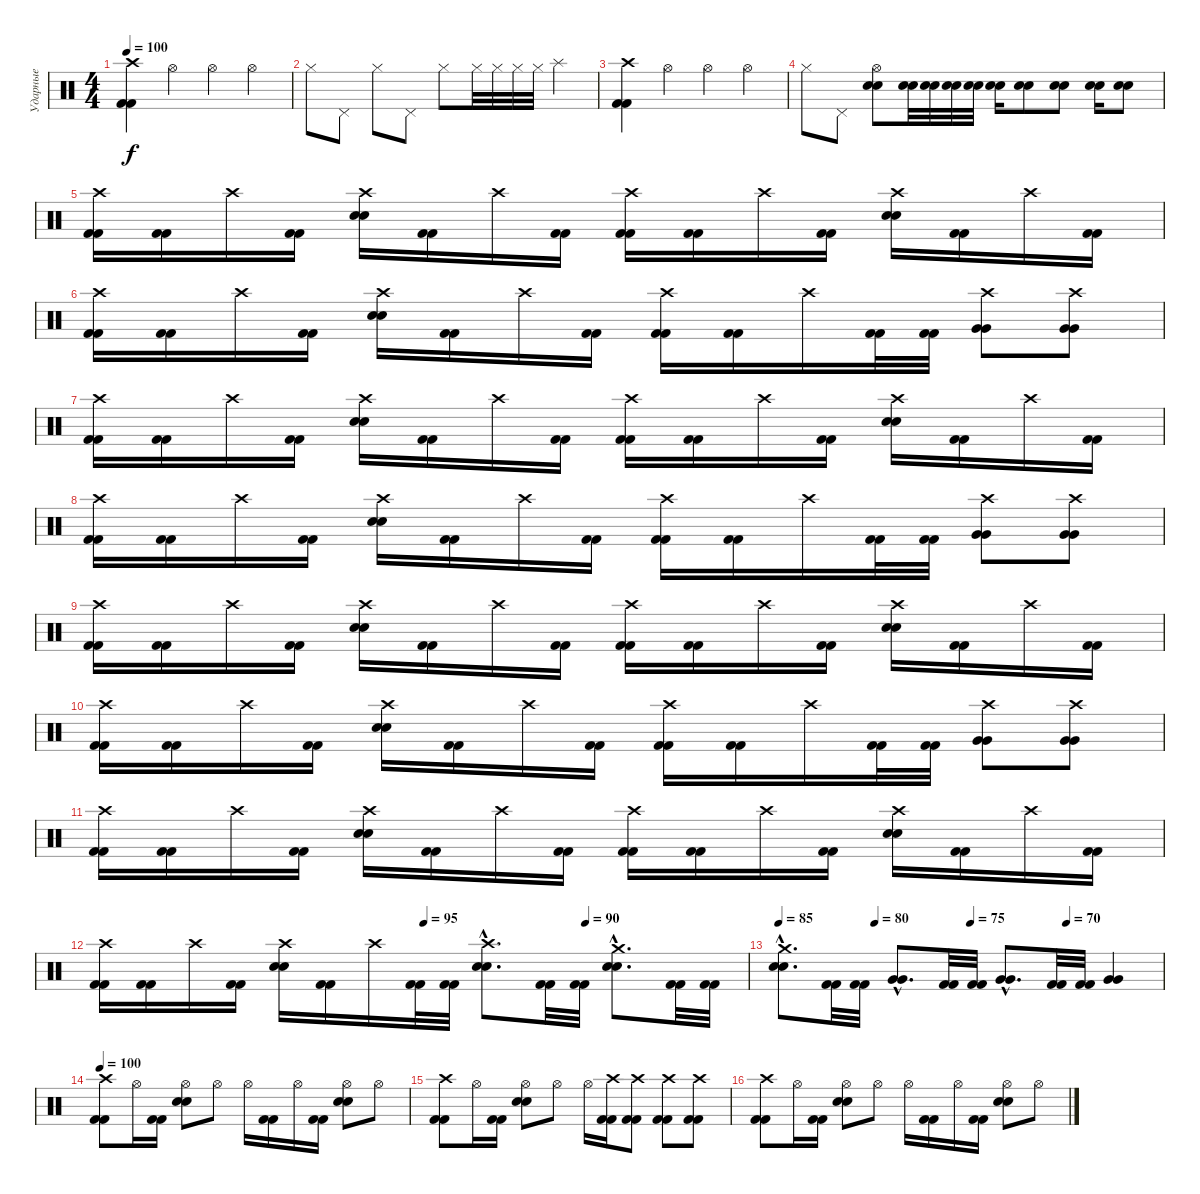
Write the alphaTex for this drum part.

\track ("Ударные" "Ударные") {instrument percussion}
\staff {score}
\articulation defaults
\ts (4 4)
\tempo 100
\clef neutral
\ks c
("Crash high (hit)" "Kick (hit) 2" "Kick (hit) 2").4{dy f} "Hi-Hat (open)".4 "Hi-Hat (open)".4 "Hi-Hat (open)".4 |
"Hi-Hat (closed)".8 "Pedal Hi-Hat (hit)".8 "Hi-Hat (closed)".8 "Pedal Hi-Hat (hit)".8 "Hi-Hat (closed)".8 "Hi-Hat (closed)".32 "Hi-Hat (closed)".32 "Hi-Hat (closed)".32 "Hi-Hat (closed)".32 "Splash (hit)".4 |
("Crash high (hit)" "Kick (hit) 2" "Kick (hit) 2").4 "Hi-Hat (open)".4 "Hi-Hat (open)".4 "Hi-Hat (open)".4 |
"Hi-Hat (closed)".8 "Pedal Hi-Hat (hit)".8 ("Hi-Hat (open)" "Electric Snare (hit)" "Electric Snare (hit)").8 ("Electric Snare (hit)" "Electric Snare (hit)").32 ("Electric Snare (hit)" "Electric Snare (hit)").32 ("Electric Snare (hit)" "Electric Snare (hit)").32 ("Electric Snare (hit)" "Electric Snare (hit)").32 ("Electric Snare (hit)" "Electric Snare (hit)").16 ("Electric Snare (hit)" "Electric Snare (hit)").8 ("Electric Snare (hit)" "Electric Snare (hit)").8 ("Electric Snare (hit)" "Electric Snare (hit)").16 ("Electric Snare (hit)" "Electric Snare (hit)").8 |
("Crash high (hit)" "Kick (hit) 2" "Kick (hit) 2").16 ("Kick (hit) 2" "Kick (hit) 2").16 "Crash high (hit)".16 ("Kick (hit) 2" "Kick (hit) 2").16 ("Crash high (hit)" "Electric Snare (hit)" "Electric Snare (hit)").16 ("Kick (hit) 2" "Kick (hit) 2").16 "Crash high (hit)".16 ("Kick (hit) 2" "Kick (hit) 2").16 ("Crash high (hit)" "Kick (hit) 2" "Kick (hit) 2").16 ("Kick (hit) 2" "Kick (hit) 2").16 "Crash high (hit)".16 ("Kick (hit) 2" "Kick (hit) 2").16 ("Crash high (hit)" "Electric Snare (hit)" "Electric Snare (hit)").16 ("Kick (hit) 2" "Kick (hit) 2").16 "Crash high (hit)".16 ("Kick (hit) 2" "Kick (hit) 2").16 |
("Crash high (hit)" "Kick (hit) 2" "Kick (hit) 2").16 ("Kick (hit) 2" "Kick (hit) 2").16 "Crash high (hit)".16 ("Kick (hit) 2" "Kick (hit) 2").16 ("Crash high (hit)" "Electric Snare (hit)" "Electric Snare (hit)").16 ("Kick (hit) 2" "Kick (hit) 2").16 "Crash high (hit)".16 ("Kick (hit) 2" "Kick (hit) 2").16 ("Crash high (hit)" "Kick (hit) 2" "Kick (hit) 2").16 ("Kick (hit) 2" "Kick (hit) 2").16 "Crash high (hit)".16 ("Kick (hit) 2" "Kick (hit) 2").32 ("Kick (hit) 2" "Kick (hit) 2").32 ("Crash high (hit)" "Very Low Tom (hit)" "Very Low Tom (hit)").8 ("Crash high (hit)" "Very Low Tom (hit)" "Very Low Tom (hit)").8 |
("Crash high (hit)" "Kick (hit) 2" "Kick (hit) 2").16 ("Kick (hit) 2" "Kick (hit) 2").16 "Crash high (hit)".16 ("Kick (hit) 2" "Kick (hit) 2").16 ("Crash high (hit)" "Electric Snare (hit)" "Electric Snare (hit)").16 ("Kick (hit) 2" "Kick (hit) 2").16 "Crash high (hit)".16 ("Kick (hit) 2" "Kick (hit) 2").16 ("Crash high (hit)" "Kick (hit) 2" "Kick (hit) 2").16 ("Kick (hit) 2" "Kick (hit) 2").16 "Crash high (hit)".16 ("Kick (hit) 2" "Kick (hit) 2").16 ("Crash high (hit)" "Electric Snare (hit)" "Electric Snare (hit)").16 ("Kick (hit) 2" "Kick (hit) 2").16 "Crash high (hit)".16 ("Kick (hit) 2" "Kick (hit) 2").16 |
("Crash high (hit)" "Kick (hit) 2" "Kick (hit) 2").16 ("Kick (hit) 2" "Kick (hit) 2").16 "Crash high (hit)".16 ("Kick (hit) 2" "Kick (hit) 2").16 ("Crash high (hit)" "Electric Snare (hit)" "Electric Snare (hit)").16 ("Kick (hit) 2" "Kick (hit) 2").16 "Crash high (hit)".16 ("Kick (hit) 2" "Kick (hit) 2").16 ("Crash high (hit)" "Kick (hit) 2" "Kick (hit) 2").16 ("Kick (hit) 2" "Kick (hit) 2").16 "Crash high (hit)".16 ("Kick (hit) 2" "Kick (hit) 2").32 ("Kick (hit) 2" "Kick (hit) 2").32 ("Crash high (hit)" "Very Low Tom (hit)" "Very Low Tom (hit)").8 ("Crash high (hit)" "Very Low Tom (hit)" "Very Low Tom (hit)").8 |
("Crash high (hit)" "Kick (hit) 2" "Kick (hit) 2").16 ("Kick (hit) 2" "Kick (hit) 2").16 "Crash high (hit)".16 ("Kick (hit) 2" "Kick (hit) 2").16 ("Crash high (hit)" "Electric Snare (hit)" "Electric Snare (hit)").16 ("Kick (hit) 2" "Kick (hit) 2").16 "Crash high (hit)".16 ("Kick (hit) 2" "Kick (hit) 2").16 ("Crash high (hit)" "Kick (hit) 2" "Kick (hit) 2").16 ("Kick (hit) 2" "Kick (hit) 2").16 "Crash high (hit)".16 ("Kick (hit) 2" "Kick (hit) 2").16 ("Crash high (hit)" "Electric Snare (hit)" "Electric Snare (hit)").16 ("Kick (hit) 2" "Kick (hit) 2").16 "Crash high (hit)".16 ("Kick (hit) 2" "Kick (hit) 2").16 |
("Crash high (hit)" "Kick (hit) 2" "Kick (hit) 2").16 ("Kick (hit) 2" "Kick (hit) 2").16 "Crash high (hit)".16 ("Kick (hit) 2" "Kick (hit) 2").16 ("Crash high (hit)" "Electric Snare (hit)" "Electric Snare (hit)").16 ("Kick (hit) 2" "Kick (hit) 2").16 "Crash high (hit)".16 ("Kick (hit) 2" "Kick (hit) 2").16 ("Crash high (hit)" "Kick (hit) 2" "Kick (hit) 2").16 ("Kick (hit) 2" "Kick (hit) 2").16 "Crash high (hit)".16 ("Kick (hit) 2" "Kick (hit) 2").32 ("Kick (hit) 2" "Kick (hit) 2").32 ("Crash high (hit)" "Very Low Tom (hit)" "Very Low Tom (hit)").8 ("Crash high (hit)" "Very Low Tom (hit)" "Very Low Tom (hit)").8 |
("Crash high (hit)" "Kick (hit) 2" "Kick (hit) 2").16 ("Kick (hit) 2" "Kick (hit) 2").16 "Crash high (hit)".16 ("Kick (hit) 2" "Kick (hit) 2").16 ("Crash high (hit)" "Electric Snare (hit)" "Electric Snare (hit)").16 ("Kick (hit) 2" "Kick (hit) 2").16 "Crash high (hit)".16 ("Kick (hit) 2" "Kick (hit) 2").16 ("Crash high (hit)" "Kick (hit) 2" "Kick (hit) 2").16 ("Kick (hit) 2" "Kick (hit) 2").16 "Crash high (hit)".16 ("Kick (hit) 2" "Kick (hit) 2").16 ("Crash high (hit)" "Electric Snare (hit)" "Electric Snare (hit)").16 ("Kick (hit) 2" "Kick (hit) 2").16 "Crash high (hit)".16 ("Kick (hit) 2" "Kick (hit) 2").16 |
\tempo (95 0.5)
\tempo (90 0.75)
("Crash high (hit)" "Kick (hit) 2" "Kick (hit) 2").16 ("Kick (hit) 2" "Kick (hit) 2").16 "Crash high (hit)".16 ("Kick (hit) 2" "Kick (hit) 2").16 ("Crash high (hit)" "Electric Snare (hit)" "Electric Snare (hit)").16 ("Kick (hit) 2" "Kick (hit) 2").16 "Crash high (hit)".16 ("Kick (hit) 2" "Kick (hit) 2").32 ("Kick (hit) 2" "Kick (hit) 2").32 ("Crash high (hit)"{hac} "Electric Snare (hit)"{hac} "Electric Snare (hit)"{hac}).8{d} ("Kick (hit) 2" "Kick (hit) 2").32 ("Kick (hit) 2" "Kick (hit) 2").32 ("Crash medium (hit)"{hac} "Electric Snare (hit)"{hac} "Electric Snare (hit)"{hac}).8{d} ("Kick (hit) 2" "Kick (hit) 2").32 ("Kick (hit) 2" "Kick (hit) 2").32 |
\tempo 85
\tempo (80 0.25)
\tempo (75 0.5)
\tempo (70 0.75)
("Crash medium (hit)"{hac} "Electric Snare (hit)"{hac} "Electric Snare (hit)"{hac}).8{d} ("Kick (hit) 2" "Kick (hit) 2").32 ("Kick (hit) 2" "Kick (hit) 2").32 ("Very Low Tom (hit)"{hac} "Very Low Tom (hit)"{hac}).8{d} ("Kick (hit) 2" "Kick (hit) 2").32 ("Kick (hit) 2" "Kick (hit) 2").32 ("Very Low Tom (hit)"{hac} "Very Low Tom (hit)"{hac}).8{d} ("Kick (hit) 2" "Kick (hit) 2").32 ("Kick (hit) 2" "Kick (hit) 2").32 ("Very Low Tom (hit)" "Very Low Tom (hit)").4 |
\tempo 100
("Crash high (hit)" "Kick (hit) 2" "Kick (hit) 2").8 "Hi-Hat (open)".16 ("Kick (hit) 2" "Kick (hit) 2").16 ("Hi-Hat (open)" "Electric Snare (hit)" "Electric Snare (hit)").8 "Hi-Hat (open)".8 "Hi-Hat (open)".16 ("Kick (hit) 2" "Kick (hit) 2").16 "Hi-Hat (open)".16 ("Kick (hit) 2" "Kick (hit) 2").16 ("Hi-Hat (open)" "Electric Snare (hit)" "Electric Snare (hit)").8 "Hi-Hat (open)".8 |
("Crash high (hit)" "Kick (hit) 2" "Kick (hit) 2").8 "Hi-Hat (open)".16 ("Kick (hit) 2" "Kick (hit) 2").16 ("Hi-Hat (open)" "Electric Snare (hit)" "Electric Snare (hit)").8 "Hi-Hat (open)".8 "Hi-Hat (open)".16 ("Crash high (hit)" "Kick (hit) 2" "Kick (hit) 2").16 ("Crash high (hit)" "Kick (hit) 2" "Kick (hit) 2").8 ("Crash high (hit)" "Kick (hit) 2" "Kick (hit) 2").8 ("Crash high (hit)" "Kick (hit) 2" "Kick (hit) 2").8 |
("Crash high (hit)" "Kick (hit) 2" "Kick (hit) 2").8 "Hi-Hat (open)".16 ("Kick (hit) 2" "Kick (hit) 2").16 ("Hi-Hat (open)" "Electric Snare (hit)" "Electric Snare (hit)").8 "Hi-Hat (open)".8 "Hi-Hat (open)".16 ("Kick (hit) 2" "Kick (hit) 2").16 "Hi-Hat (open)".16 ("Kick (hit) 2" "Kick (hit) 2").16 ("Hi-Hat (open)" "Electric Snare (hit)" "Electric Snare (hit)").8 "Hi-Hat (open)".8
